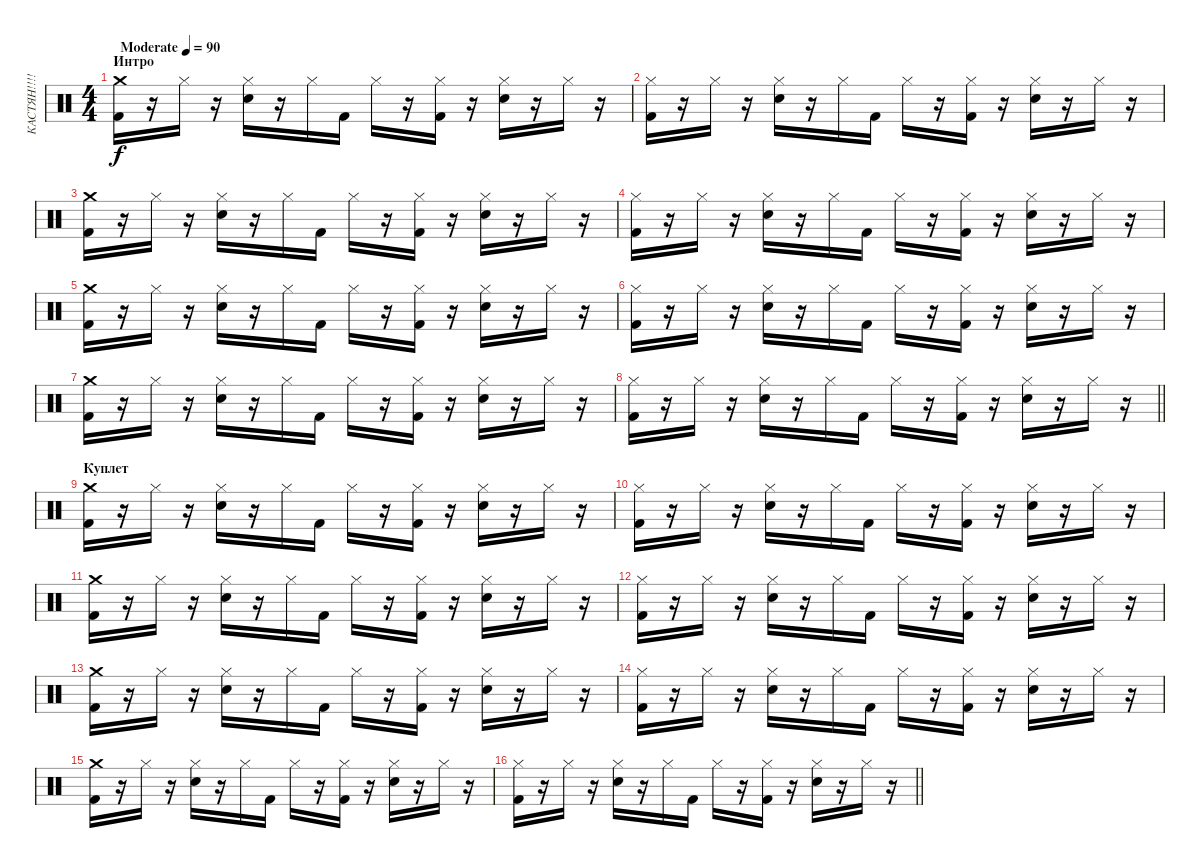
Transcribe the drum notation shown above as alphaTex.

\track ("КАСТЯН!!!!" "КАСТЯН!!!!") {instrument percussion}
\staff {score}
\articulation defaults
\ts (4 4)
\section ("" "Интро")
\tempo (90 "Moderate")
\clef neutral
\ks c
("Crash medium (hit)" "Kick (hit) 2").16{dy f} r.16 "Hi-Hat (closed)".16 r.16 ("Hi-Hat (closed)" "Snare (hit) 2").16 r.16 "Hi-Hat (closed)".16 "Kick (hit) 2".16 "Hi-Hat (closed)".16 r.16 ("Hi-Hat (closed)" "Kick (hit) 2").16 r.16 ("Hi-Hat (closed)" "Snare (hit) 2").16 r.16 "Hi-Hat (closed)".16 r.16 |
("Hi-Hat (closed)" "Kick (hit) 2").16 r.16 "Hi-Hat (closed)".16 r.16 ("Hi-Hat (closed)" "Snare (hit) 2").16 r.16 "Hi-Hat (closed)".16 "Kick (hit) 2".16 "Hi-Hat (closed)".16 r.16 ("Hi-Hat (closed)" "Kick (hit) 2").16 r.16 ("Hi-Hat (closed)" "Snare (hit) 2").16 r.16 "Hi-Hat (closed)".16 r.16 |
("Crash medium (hit)" "Kick (hit) 2").16 r.16 "Hi-Hat (closed)".16 r.16 ("Hi-Hat (closed)" "Snare (hit) 2").16 r.16 "Hi-Hat (closed)".16 "Kick (hit) 2".16 "Hi-Hat (closed)".16 r.16 ("Hi-Hat (closed)" "Kick (hit) 2").16 r.16 ("Hi-Hat (closed)" "Snare (hit) 2").16 r.16 "Hi-Hat (closed)".16 r.16 |
("Hi-Hat (closed)" "Kick (hit) 2").16 r.16 "Hi-Hat (closed)".16 r.16 ("Hi-Hat (closed)" "Snare (hit) 2").16 r.16 "Hi-Hat (closed)".16 "Kick (hit) 2".16 "Hi-Hat (closed)".16 r.16 ("Hi-Hat (closed)" "Kick (hit) 2").16 r.16 ("Hi-Hat (closed)" "Snare (hit) 2").16 r.16 "Hi-Hat (closed)".16 r.16 |
("Crash medium (hit)" "Kick (hit) 2").16 r.16 "Hi-Hat (closed)".16 r.16 ("Hi-Hat (closed)" "Snare (hit) 2").16 r.16 "Hi-Hat (closed)".16 "Kick (hit) 2".16 "Hi-Hat (closed)".16 r.16 ("Hi-Hat (closed)" "Kick (hit) 2").16 r.16 ("Hi-Hat (closed)" "Snare (hit) 2").16 r.16 "Hi-Hat (closed)".16 r.16 |
("Hi-Hat (closed)" "Kick (hit) 2").16 r.16 "Hi-Hat (closed)".16 r.16 ("Hi-Hat (closed)" "Snare (hit) 2").16 r.16 "Hi-Hat (closed)".16 "Kick (hit) 2".16 "Hi-Hat (closed)".16 r.16 ("Hi-Hat (closed)" "Kick (hit) 2").16 r.16 ("Hi-Hat (closed)" "Snare (hit) 2").16 r.16 "Hi-Hat (closed)".16 r.16 |
("Crash medium (hit)" "Kick (hit) 2").16 r.16 "Hi-Hat (closed)".16 r.16 ("Hi-Hat (closed)" "Snare (hit) 2").16 r.16 "Hi-Hat (closed)".16 "Kick (hit) 2".16 "Hi-Hat (closed)".16 r.16 ("Hi-Hat (closed)" "Kick (hit) 2").16 r.16 ("Hi-Hat (closed)" "Snare (hit) 2").16 r.16 "Hi-Hat (closed)".16 r.16 |
\barLineRight lightlight
("Hi-Hat (closed)" "Kick (hit) 2").16 r.16 "Hi-Hat (closed)".16 r.16 ("Hi-Hat (closed)" "Snare (hit) 2").16 r.16 "Hi-Hat (closed)".16 "Kick (hit) 2".16 "Hi-Hat (closed)".16 r.16 ("Hi-Hat (closed)" "Kick (hit) 2").16 r.16 ("Hi-Hat (closed)" "Snare (hit) 2").16 r.16 "Hi-Hat (closed)".16 r.16 |
\section ("" "Куплет")
("Crash medium (hit)" "Kick (hit) 2").16 r.16 "Hi-Hat (closed)".16 r.16 ("Hi-Hat (closed)" "Snare (hit) 2").16 r.16 "Hi-Hat (closed)".16 "Kick (hit) 2".16 "Hi-Hat (closed)".16 r.16 ("Hi-Hat (closed)" "Kick (hit) 2").16 r.16 ("Hi-Hat (closed)" "Snare (hit) 2").16 r.16 "Hi-Hat (closed)".16 r.16 |
("Hi-Hat (closed)" "Kick (hit) 2").16 r.16 "Hi-Hat (closed)".16 r.16 ("Hi-Hat (closed)" "Snare (hit) 2").16 r.16 "Hi-Hat (closed)".16 "Kick (hit) 2".16 "Hi-Hat (closed)".16 r.16 ("Hi-Hat (closed)" "Kick (hit) 2").16 r.16 ("Hi-Hat (closed)" "Snare (hit) 2").16 r.16 "Hi-Hat (closed)".16 r.16 |
("Crash medium (hit)" "Kick (hit) 2").16 r.16 "Hi-Hat (closed)".16 r.16 ("Hi-Hat (closed)" "Snare (hit) 2").16 r.16 "Hi-Hat (closed)".16 "Kick (hit) 2".16 "Hi-Hat (closed)".16 r.16 ("Hi-Hat (closed)" "Kick (hit) 2").16 r.16 ("Hi-Hat (closed)" "Snare (hit) 2").16 r.16 "Hi-Hat (closed)".16 r.16 |
("Hi-Hat (closed)" "Kick (hit) 2").16 r.16 "Hi-Hat (closed)".16 r.16 ("Hi-Hat (closed)" "Snare (hit) 2").16 r.16 "Hi-Hat (closed)".16 "Kick (hit) 2".16 "Hi-Hat (closed)".16 r.16 ("Hi-Hat (closed)" "Kick (hit) 2").16 r.16 ("Hi-Hat (closed)" "Snare (hit) 2").16 r.16 "Hi-Hat (closed)".16 r.16 |
("Crash medium (hit)" "Kick (hit) 2").16 r.16 "Hi-Hat (closed)".16 r.16 ("Hi-Hat (closed)" "Snare (hit) 2").16 r.16 "Hi-Hat (closed)".16 "Kick (hit) 2".16 "Hi-Hat (closed)".16 r.16 ("Hi-Hat (closed)" "Kick (hit) 2").16 r.16 ("Hi-Hat (closed)" "Snare (hit) 2").16 r.16 "Hi-Hat (closed)".16 r.16 |
("Hi-Hat (closed)" "Kick (hit) 2").16 r.16 "Hi-Hat (closed)".16 r.16 ("Hi-Hat (closed)" "Snare (hit) 2").16 r.16 "Hi-Hat (closed)".16 "Kick (hit) 2".16 "Hi-Hat (closed)".16 r.16 ("Hi-Hat (closed)" "Kick (hit) 2").16 r.16 ("Hi-Hat (closed)" "Snare (hit) 2").16 r.16 "Hi-Hat (closed)".16 r.16 |
("Crash medium (hit)" "Kick (hit) 2").16 r.16 "Hi-Hat (closed)".16 r.16 ("Hi-Hat (closed)" "Snare (hit) 2").16 r.16 "Hi-Hat (closed)".16 "Kick (hit) 2".16 "Hi-Hat (closed)".16 r.16 ("Hi-Hat (closed)" "Kick (hit) 2").16 r.16 ("Hi-Hat (closed)" "Snare (hit) 2").16 r.16 "Hi-Hat (closed)".16 r.16 |
\barLineRight lightlight
("Hi-Hat (closed)" "Kick (hit) 2").16 r.16 "Hi-Hat (closed)".16 r.16 ("Hi-Hat (closed)" "Snare (hit) 2").16 r.16 "Hi-Hat (closed)".16 "Kick (hit) 2".16 "Hi-Hat (closed)".16 r.16 ("Hi-Hat (closed)" "Kick (hit) 2").16 r.16 ("Hi-Hat (closed)" "Snare (hit) 2").16 r.16 "Hi-Hat (closed)".16 r.16
